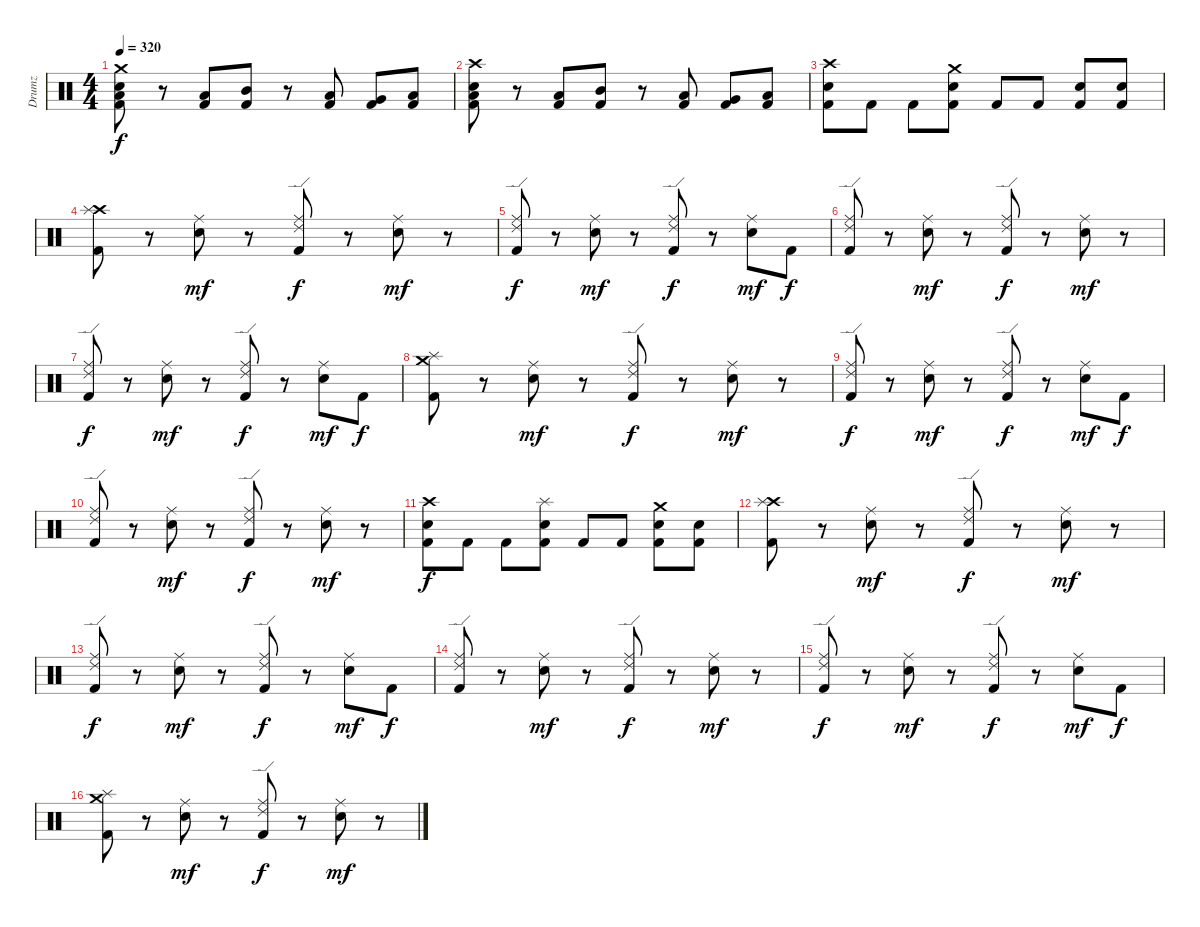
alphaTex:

\track ("Drumz" "Drumz") {instrument percussion}
\staff {score}
\articulation defaults
\ts (4 4)
\tempo 320
\clef neutral
\ks c
("Crash medium (hit)" "Snare (hit) 2" "Kick (hit) 2" "Low Tom (hit)").8{dy f} r.8 ("Kick (hit) 2" "Low Tom (hit)").8 ("Kick (hit) 2" "Mid Tom (hit)").8 r.8 ("Kick (hit) 2" "Low Tom (hit)").8 ("Kick (hit) 2" "Very Low Tom (hit)").8 ("Low Floor Tom (hit)" "Kick (hit) 2").8 |
("Crash high (hit)" "Snare (hit) 2" "Kick (hit) 2" "Low Tom (hit)").8 r.8 ("Kick (hit) 2" "Low Tom (hit)").8 ("Kick (hit) 2" "Mid Tom (hit)").8 r.8 ("Kick (hit) 2" "Low Tom (hit)").8 ("Kick (hit) 2" "Very Low Tom (hit)").8 ("Low Floor Tom (hit)" "Kick (hit) 2").8 |
("Crash high (hit)" "Snare (hit) 2" "Kick (hit) 2").8 "Kick (hit) 2".8 "Kick (hit) 2".8 ("Crash medium (hit)" "Snare (hit) 2" "Kick (hit) 2").8 "Kick (hit) 2".8 "Kick (hit) 2".8 ("Snare (hit) 2" "Kick (hit) 2").8 ("Snare (hit) 2" "Kick (hit) 2").8 |
("Kick (hit) 2" "Crash high (hit)" "Splash (hit)").8 r.8 ("Snare (hit) 2" "Ride (middle)").8{dy mf} r.8 ("Ride (edge) 2" "Kick (hit) 2" "Ride (middle)").8{dy f} r.8 ("Snare (hit) 2" "Ride (middle)").8{dy mf} r.8 |
("Kick (hit) 2" "Ride (middle)" "Ride (edge) 2").8{dy f} r.8 ("Snare (hit) 2" "Ride (middle)").8{dy mf} r.8 ("Kick (hit) 2" "Ride (middle)" "Ride (edge) 2").8{dy f} r.8 ("Snare (hit) 2" "Ride (middle)").8{dy mf} "Kick (hit) 2".8{dy f} |
("Kick (hit) 2" "Ride (middle)" "Ride (edge) 2").8 r.8 ("Snare (hit) 2" "Ride (middle)").8{dy mf} r.8 ("Ride (edge) 2" "Kick (hit) 2" "Ride (middle)").8{dy f} r.8 ("Snare (hit) 2" "Ride (middle)").8{dy mf} r.8 |
("Kick (hit) 2" "Ride (middle)" "Ride (edge) 2").8{dy f} r.8 ("Snare (hit) 2" "Ride (middle)").8{dy mf} r.8 ("Kick (hit) 2" "Ride (middle)" "Ride (edge) 2").8{dy f} r.8 ("Snare (hit) 2" "Ride (middle)").8{dy mf} "Kick (hit) 2".8{dy f} |
("Crash medium (hit)" "Kick (hit) 2" "Splash (hit)").8 r.8 ("Snare (hit) 2" "Ride (middle)").8{dy mf} r.8 ("Ride (edge) 2" "Kick (hit) 2" "Ride (middle)").8{dy f} r.8 ("Snare (hit) 2" "Ride (middle)").8{dy mf} r.8 |
("Kick (hit) 2" "Ride (middle)" "Ride (edge) 2").8{dy f} r.8 ("Snare (hit) 2" "Ride (middle)").8{dy mf} r.8 ("Kick (hit) 2" "Ride (middle)" "Ride (edge) 2").8{dy f} r.8 ("Snare (hit) 2" "Ride (middle)").8{dy mf} "Kick (hit) 2".8{dy f} |
("Kick (hit) 2" "Ride (middle)" "Ride (edge) 2").8 r.8 ("Snare (hit) 2" "Ride (middle)").8{dy mf} r.8 ("Kick (hit) 2" "Ride (middle)" "Ride (edge) 2").8{dy f} r.8 ("Snare (hit) 2" "Ride (middle)").8{dy mf} r.8 |
("Snare (hit) 2" "Kick (hit) 2" "Crash high (hit)").8{dy f} "Kick (hit) 2".8 "Kick (hit) 2".8 ("Kick (hit) 2" "Snare (hit) 2" "Splash (hit)").8 "Kick (hit) 2".8 "Kick (hit) 2".8 ("Snare (hit) 2" "Kick (hit) 2" "Crash medium (hit)").8 ("Snare (hit) 2" "Kick (hit) 2").8 |
("Kick (hit) 2" "Crash high (hit)" "Splash (hit)").8 r.8 ("Snare (hit) 2" "Ride (middle)").8{dy mf} r.8 ("Ride (edge) 2" "Kick (hit) 2" "Ride (middle)").8{dy f} r.8 ("Snare (hit) 2" "Ride (middle)").8{dy mf} r.8 |
("Kick (hit) 2" "Ride (middle)" "Ride (edge) 2").8{dy f} r.8 ("Snare (hit) 2" "Ride (middle)").8{dy mf} r.8 ("Kick (hit) 2" "Ride (middle)" "Ride (edge) 2").8{dy f} r.8 ("Snare (hit) 2" "Ride (middle)").8{dy mf} "Kick (hit) 2".8{dy f} |
("Kick (hit) 2" "Ride (middle)" "Ride (edge) 2").8 r.8 ("Snare (hit) 2" "Ride (middle)").8{dy mf} r.8 ("Ride (edge) 2" "Kick (hit) 2" "Ride (middle)").8{dy f} r.8 ("Snare (hit) 2" "Ride (middle)").8{dy mf} r.8 |
("Kick (hit) 2" "Ride (middle)" "Ride (edge) 2").8{dy f} r.8 ("Snare (hit) 2" "Ride (middle)").8{dy mf} r.8 ("Kick (hit) 2" "Ride (middle)" "Ride (edge) 2").8{dy f} r.8 ("Snare (hit) 2" "Ride (middle)").8{dy mf} "Kick (hit) 2".8{dy f} |
("Crash medium (hit)" "Kick (hit) 2" "Splash (hit)").8 r.8 ("Snare (hit) 2" "Ride (middle)").8{dy mf} r.8 ("Ride (edge) 2" "Kick (hit) 2" "Ride (middle)").8{dy f} r.8 ("Snare (hit) 2" "Ride (middle)").8{dy mf} r.8
